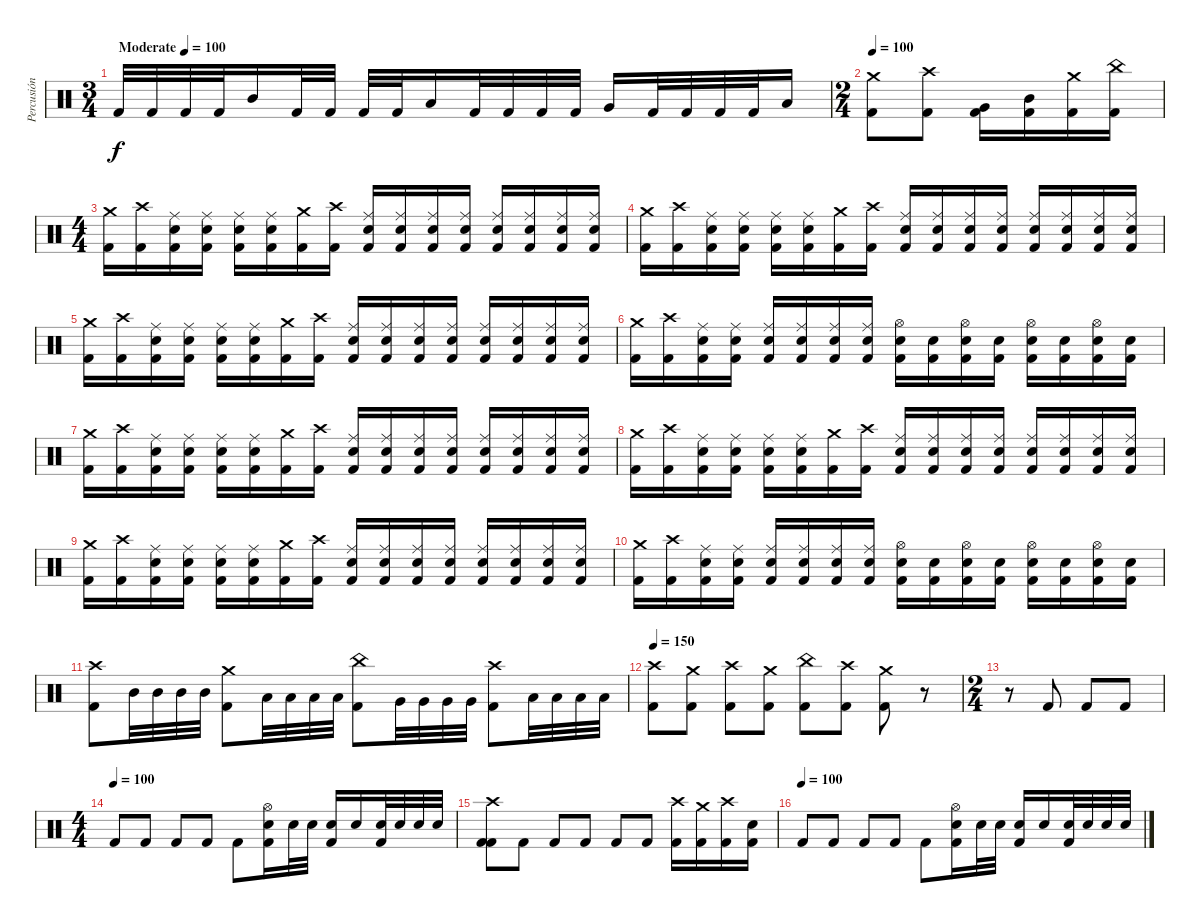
\track ("Percusión" "Percusión") {instrument percussion}
\staff {score}
\articulation defaults
\ts (3 4)
\tempo (100 "Moderate")
\tempo 150
\tempo (100 "Moderate")
\clef neutral
\ks c "Kick (hit) 2".32{dy f} "Kick (hit) 2".32 "Kick (hit) 2".32 "Kick (hit) 2".32 "Mid Tom (hit)".16 "Kick (hit) 2".32 "Kick (hit) 2".32 "Kick (hit) 2".32 "Kick (hit) 2".32 "Low Tom (hit)".16 "Kick (hit) 2".32 "Kick (hit) 2".32 "Kick (hit) 2".32 "Kick (hit) 2".32 "Very Low Tom (hit)".16 "Kick (hit) 2".32 "Kick (hit) 2".32 "Kick (hit) 2".32 "Kick (hit) 2".32 "Low Floor Tom (hit)".16
|
\ts (2 4)
\tempo 100
("Kick (hit) 2" "Crash medium (hit)").8 ("Crash high (hit)" "Kick (hit) 2").8 ("Kick (hit) 2" "Very Low Tom (hit)").16 ("Kick (hit) 2" "Mid Tom (hit)").16 ("Kick (hit) 2" "Crash medium (hit)").16 ("Kick (hit) 2" "China (hit)").16 |
\ts (4 4)
("Kick (hit) 2" "Crash medium (hit)").16 ("Kick (hit) 2" "Crash high (hit)").16 ("Ride (middle)" "Snare (hit) 2" "Kick (hit) 2").16 ("Ride (middle)" "Snare (hit) 2" "Kick (hit) 2").16 ("Ride (middle)" "Snare (hit) 2" "Kick (hit) 2").16 ("Ride (middle)" "Snare (hit) 2" "Kick (hit) 2").16 ("Crash medium (hit)" "Kick (hit) 2").16 ("Crash high (hit)" "Kick (hit) 2").16 ("Snare (hit) 2" "Ride (middle)" "Kick (hit) 2").16 ("Snare (hit) 2" "Ride (middle)" "Kick (hit) 2").16 ("Snare (hit) 2" "Ride (middle)" "Kick (hit) 2").16 ("Snare (hit) 2" "Ride (middle)" "Kick (hit) 2").16 ("Snare (hit) 2" "Ride (middle)" "Kick (hit) 2").16 ("Snare (hit) 2" "Ride (middle)" "Kick (hit) 2").16 ("Snare (hit) 2" "Ride (middle)" "Kick (hit) 2").16 ("Snare (hit) 2" "Ride (middle)" "Kick (hit) 2").16 |
("Kick (hit) 2" "Crash medium (hit)").16 ("Kick (hit) 2" "Crash high (hit)").16 ("Ride (middle)" "Snare (hit) 2" "Kick (hit) 2").16 ("Ride (middle)" "Snare (hit) 2" "Kick (hit) 2").16 ("Ride (middle)" "Snare (hit) 2" "Kick (hit) 2").16 ("Ride (middle)" "Snare (hit) 2" "Kick (hit) 2").16 ("Crash medium (hit)" "Kick (hit) 2").16 ("Crash high (hit)" "Kick (hit) 2").16 ("Snare (hit) 2" "Ride (middle)" "Kick (hit) 2").16 ("Snare (hit) 2" "Ride (middle)" "Kick (hit) 2").16 ("Snare (hit) 2" "Ride (middle)" "Kick (hit) 2").16 ("Snare (hit) 2" "Ride (middle)" "Kick (hit) 2").16 ("Snare (hit) 2" "Ride (middle)" "Kick (hit) 2").16 ("Snare (hit) 2" "Ride (middle)" "Kick (hit) 2").16 ("Snare (hit) 2" "Ride (middle)" "Kick (hit) 2").16 ("Snare (hit) 2" "Ride (middle)" "Kick (hit) 2").16 |
("Kick (hit) 2" "Crash medium (hit)").16 ("Kick (hit) 2" "Crash high (hit)").16 ("Ride (middle)" "Snare (hit) 2" "Kick (hit) 2").16 ("Ride (middle)" "Snare (hit) 2" "Kick (hit) 2").16 ("Ride (middle)" "Snare (hit) 2" "Kick (hit) 2").16 ("Ride (middle)" "Snare (hit) 2" "Kick (hit) 2").16 ("Crash medium (hit)" "Kick (hit) 2").16 ("Crash high (hit)" "Kick (hit) 2").16 ("Snare (hit) 2" "Ride (middle)" "Kick (hit) 2").16 ("Snare (hit) 2" "Ride (middle)" "Kick (hit) 2").16 ("Snare (hit) 2" "Ride (middle)" "Kick (hit) 2").16 ("Snare (hit) 2" "Ride (middle)" "Kick (hit) 2").16 ("Snare (hit) 2" "Ride (middle)" "Kick (hit) 2").16 ("Snare (hit) 2" "Ride (middle)" "Kick (hit) 2").16 ("Snare (hit) 2" "Ride (middle)" "Kick (hit) 2").16 ("Snare (hit) 2" "Ride (middle)" "Kick (hit) 2").16 |
("Kick (hit) 2" "Crash medium (hit)").16 ("Kick (hit) 2" "Crash high (hit)").16 ("Ride (middle)" "Snare (hit) 2" "Kick (hit) 2").16 ("Ride (middle)" "Snare (hit) 2" "Kick (hit) 2").16 ("Ride (middle)" "Snare (hit) 2" "Kick (hit) 2").16 ("Ride (middle)" "Snare (hit) 2" "Kick (hit) 2").16 ("Snare (hit) 2" "Ride (middle)" "Kick (hit) 2").16 ("Snare (hit) 2" "Ride (middle)" "Kick (hit) 2").16 ("Snare (hit) 2" "Hi-Hat (open)" "Kick (hit) 2").16 ("Snare (hit) 2" "Kick (hit) 2").16 ("Snare (hit) 2" "Hi-Hat (open)" "Kick (hit) 2").16 ("Snare (hit) 2" "Kick (hit) 2").16 ("Snare (hit) 2" "Hi-Hat (open)" "Kick (hit) 2").16 ("Snare (hit) 2" "Kick (hit) 2").16 ("Snare (hit) 2" "Hi-Hat (open)" "Kick (hit) 2").16 ("Snare (hit) 2" "Kick (hit) 2").16 |
("Kick (hit) 2" "Crash medium (hit)").16 ("Kick (hit) 2" "Crash high (hit)").16 ("Ride (middle)" "Snare (hit) 2" "Kick (hit) 2").16 ("Ride (middle)" "Snare (hit) 2" "Kick (hit) 2").16 ("Ride (middle)" "Snare (hit) 2" "Kick (hit) 2").16 ("Ride (middle)" "Snare (hit) 2" "Kick (hit) 2").16 ("Crash medium (hit)" "Kick (hit) 2").16 ("Crash high (hit)" "Kick (hit) 2").16 ("Snare (hit) 2" "Ride (middle)" "Kick (hit) 2").16 ("Snare (hit) 2" "Ride (middle)" "Kick (hit) 2").16 ("Snare (hit) 2" "Ride (middle)" "Kick (hit) 2").16 ("Snare (hit) 2" "Ride (middle)" "Kick (hit) 2").16 ("Snare (hit) 2" "Ride (middle)" "Kick (hit) 2").16 ("Snare (hit) 2" "Ride (middle)" "Kick (hit) 2").16 ("Snare (hit) 2" "Ride (middle)" "Kick (hit) 2").16 ("Snare (hit) 2" "Ride (middle)" "Kick (hit) 2").16 |
("Kick (hit) 2" "Crash medium (hit)").16 ("Kick (hit) 2" "Crash high (hit)").16 ("Ride (middle)" "Snare (hit) 2" "Kick (hit) 2").16 ("Ride (middle)" "Snare (hit) 2" "Kick (hit) 2").16 ("Ride (middle)" "Snare (hit) 2" "Kick (hit) 2").16 ("Ride (middle)" "Snare (hit) 2" "Kick (hit) 2").16 ("Crash medium (hit)" "Kick (hit) 2").16 ("Crash high (hit)" "Kick (hit) 2").16 ("Snare (hit) 2" "Ride (middle)" "Kick (hit) 2").16 ("Snare (hit) 2" "Ride (middle)" "Kick (hit) 2").16 ("Snare (hit) 2" "Ride (middle)" "Kick (hit) 2").16 ("Snare (hit) 2" "Ride (middle)" "Kick (hit) 2").16 ("Snare (hit) 2" "Ride (middle)" "Kick (hit) 2").16 ("Snare (hit) 2" "Ride (middle)" "Kick (hit) 2").16 ("Snare (hit) 2" "Ride (middle)" "Kick (hit) 2").16 ("Snare (hit) 2" "Ride (middle)" "Kick (hit) 2").16 |
("Kick (hit) 2" "Crash medium (hit)").16 ("Kick (hit) 2" "Crash high (hit)").16 ("Ride (middle)" "Snare (hit) 2" "Kick (hit) 2").16 ("Ride (middle)" "Snare (hit) 2" "Kick (hit) 2").16 ("Ride (middle)" "Snare (hit) 2" "Kick (hit) 2").16 ("Ride (middle)" "Snare (hit) 2" "Kick (hit) 2").16 ("Crash medium (hit)" "Kick (hit) 2").16 ("Crash high (hit)" "Kick (hit) 2").16 ("Snare (hit) 2" "Ride (middle)" "Kick (hit) 2").16 ("Snare (hit) 2" "Ride (middle)" "Kick (hit) 2").16 ("Snare (hit) 2" "Ride (middle)" "Kick (hit) 2").16 ("Snare (hit) 2" "Ride (middle)" "Kick (hit) 2").16 ("Snare (hit) 2" "Ride (middle)" "Kick (hit) 2").16 ("Snare (hit) 2" "Ride (middle)" "Kick (hit) 2").16 ("Snare (hit) 2" "Ride (middle)" "Kick (hit) 2").16 ("Snare (hit) 2" "Ride (middle)" "Kick (hit) 2").16 |
("Kick (hit) 2" "Crash medium (hit)").16 ("Kick (hit) 2" "Crash high (hit)").16 ("Ride (middle)" "Snare (hit) 2" "Kick (hit) 2").16 ("Ride (middle)" "Snare (hit) 2" "Kick (hit) 2").16 ("Ride (middle)" "Snare (hit) 2" "Kick (hit) 2").16 ("Ride (middle)" "Snare (hit) 2" "Kick (hit) 2").16 ("Snare (hit) 2" "Ride (middle)" "Kick (hit) 2").16 ("Snare (hit) 2" "Ride (middle)" "Kick (hit) 2").16 ("Snare (hit) 2" "Hi-Hat (open)" "Kick (hit) 2").16 ("Snare (hit) 2" "Kick (hit) 2").16 ("Snare (hit) 2" "Hi-Hat (open)" "Kick (hit) 2").16 ("Snare (hit) 2" "Kick (hit) 2").16 ("Snare (hit) 2" "Hi-Hat (open)" "Kick (hit) 2").16 ("Snare (hit) 2" "Kick (hit) 2").16 ("Snare (hit) 2" "Hi-Hat (open)" "Kick (hit) 2").16 ("Snare (hit) 2" "Kick (hit) 2").16 |
("Kick (hit) 2" "Crash high (hit)").8 "Mid Tom (hit)".32 "Mid Tom (hit)".32 "Mid Tom (hit)".32 "Mid Tom (hit)".32 ("Crash medium (hit)" "Kick (hit) 2").8 "Low Tom (hit)".32 "Low Tom (hit)".32 "Low Tom (hit)".32 "Low Tom (hit)".32 ("China (hit)" "Kick (hit) 2").8 "Very Low Tom (hit)".32 "Very Low Tom (hit)".32 "Very Low Tom (hit)".32 "Very Low Tom (hit)".32 ("Kick (hit) 2" "Crash high (hit)").8 "Low Floor Tom (hit)".32 "Low Floor Tom (hit)".32 "Low Floor Tom (hit)".32 "Low Floor Tom (hit)".32 |
\tempo 150
("Crash high (hit)" "Kick (hit) 2").8 ("Crash medium (hit)" "Kick (hit) 2").8 ("Crash high (hit)" "Kick (hit) 2").8 ("Crash medium (hit)" "Kick (hit) 2").8 ("China (hit)" "Kick (hit) 2").8 ("Crash high (hit)" "Kick (hit) 2").8 ("Crash medium (hit)" "Kick (hit) 2").8 r.8 |
\ts (2 4)
r.8 "Kick (hit) 2".8 "Kick (hit) 2".8 "Kick (hit) 2".8 |
\ts (4 4)
\tempo (100)
"Kick (hit) 2".8 "Kick (hit) 2".8 "Kick (hit) 2".8 "Kick (hit) 2".8 "Kick (hit) 2".8 ("Kick (hit) 2" "Hi-Hat (open)" "Snare (hit) 2").16 "Snare (hit) 2".32 "Snare (hit) 2".32 ("Kick (hit) 2" "Snare (hit) 2").16 "Snare (hit) 2".16 ("Kick (hit) 2" "Snare (hit) 2").32 "Snare (hit) 2".32 "Snare (hit) 2".32 "Snare (hit) 2".32 |
("Kick (hit) 2" "Crash high (hit)" "Kick (hit) 2").8 "Kick (hit) 2".8 "Kick (hit) 2".8 "Kick (hit) 2".8 "Kick (hit) 2".8 "Kick (hit) 2".8 ("Crash high (hit)" "Kick (hit) 2").16 ("Crash medium (hit)" "Kick (hit) 2").16 ("Crash high (hit)" "Kick (hit) 2").16 ("Snare (hit) 2" "Kick (hit) 2").16 |
\tempo (100)
"Kick (hit) 2".8 "Kick (hit) 2".8 "Kick (hit) 2".8 "Kick (hit) 2".8 "Kick (hit) 2".8 ("Kick (hit) 2" "Hi-Hat (open)" "Snare (hit) 2").16 "Snare (hit) 2".32 "Snare (hit) 2".32 ("Kick (hit) 2" "Snare (hit) 2").16 "Snare (hit) 2".16 ("Kick (hit) 2" "Snare (hit) 2").32 "Snare (hit) 2".32 "Snare (hit) 2".32 "Snare (hit) 2".32
